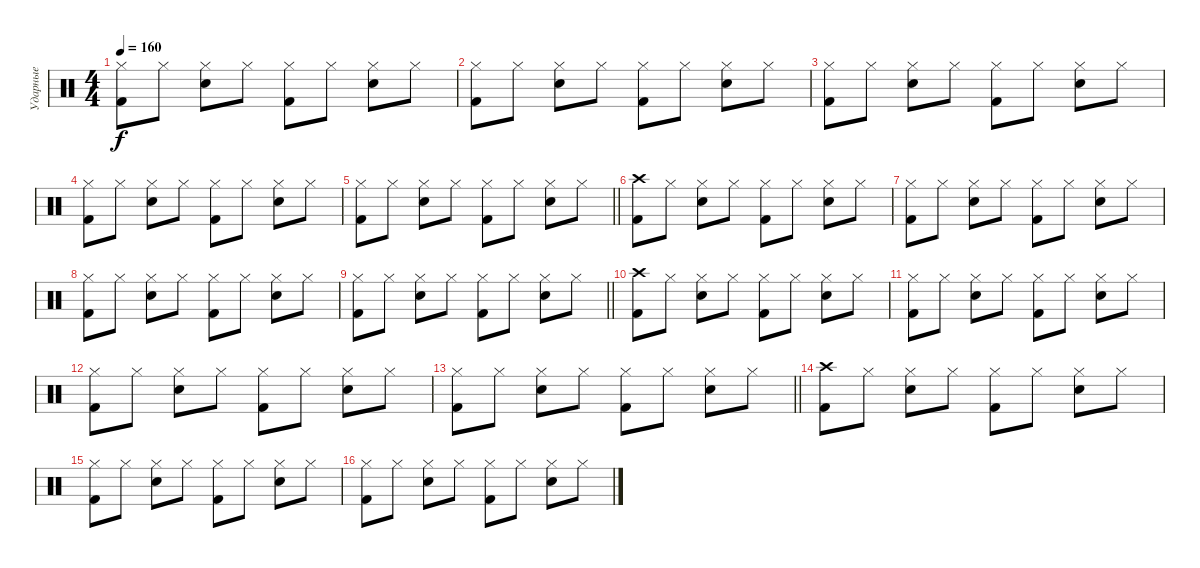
\track ("Ударные" "Ударные") {instrument percussion}
\staff {score}
\articulation defaults
\ts (4 4)
\tempo 160
\clef neutral
\ks c
("Hi-Hat (closed)" "Kick (hit) 2").8{dy f} "Hi-Hat (closed)".8 ("Hi-Hat (closed)" "Snare (hit) 2").8 "Hi-Hat (closed)".8 ("Hi-Hat (closed)" "Kick (hit) 2").8 "Hi-Hat (closed)".8 ("Hi-Hat (closed)" "Snare (hit) 2").8 "Hi-Hat (closed)".8 |
("Hi-Hat (closed)" "Kick (hit) 2").8 "Hi-Hat (closed)".8 ("Hi-Hat (closed)" "Snare (hit) 2").8 "Hi-Hat (closed)".8 ("Hi-Hat (closed)" "Kick (hit) 2").8 "Hi-Hat (closed)".8 ("Hi-Hat (closed)" "Snare (hit) 2").8 "Hi-Hat (closed)".8 |
("Hi-Hat (closed)" "Kick (hit) 2").8 "Hi-Hat (closed)".8 ("Hi-Hat (closed)" "Snare (hit) 2").8 "Hi-Hat (closed)".8 ("Hi-Hat (closed)" "Kick (hit) 2").8 "Hi-Hat (closed)".8 ("Hi-Hat (closed)" "Snare (hit) 2").8 "Hi-Hat (closed)".8 |
("Hi-Hat (closed)" "Kick (hit) 2").8 "Hi-Hat (closed)".8 ("Hi-Hat (closed)" "Snare (hit) 2").8 "Hi-Hat (closed)".8 ("Hi-Hat (closed)" "Kick (hit) 2").8 "Hi-Hat (closed)".8 ("Hi-Hat (closed)" "Snare (hit) 2").8 "Hi-Hat (closed)".8 |
\barLineRight lightlight
("Hi-Hat (closed)" "Kick (hit) 2").8 "Hi-Hat (closed)".8 ("Hi-Hat (closed)" "Snare (hit) 2").8 "Hi-Hat (closed)".8 ("Hi-Hat (closed)" "Kick (hit) 2").8 "Hi-Hat (closed)".8 ("Hi-Hat (closed)" "Snare (hit) 2").8 "Hi-Hat (closed)".8 |
("Crash high (hit)" "Kick (hit) 2").8 "Hi-Hat (closed)".8 ("Hi-Hat (closed)" "Snare (hit) 2").8 "Hi-Hat (closed)".8 ("Hi-Hat (closed)" "Kick (hit) 2").8 "Hi-Hat (closed)".8 ("Hi-Hat (closed)" "Snare (hit) 2").8 "Hi-Hat (closed)".8 |
("Hi-Hat (closed)" "Kick (hit) 2").8 "Hi-Hat (closed)".8 ("Hi-Hat (closed)" "Snare (hit) 2").8 "Hi-Hat (closed)".8 ("Hi-Hat (closed)" "Kick (hit) 2").8 "Hi-Hat (closed)".8 ("Hi-Hat (closed)" "Snare (hit) 2").8 "Hi-Hat (closed)".8 |
("Hi-Hat (closed)" "Kick (hit) 2").8 "Hi-Hat (closed)".8 ("Hi-Hat (closed)" "Snare (hit) 2").8 "Hi-Hat (closed)".8 ("Hi-Hat (closed)" "Kick (hit) 2").8 "Hi-Hat (closed)".8 ("Hi-Hat (closed)" "Snare (hit) 2").8 "Hi-Hat (closed)".8 |
\barLineRight lightlight
("Hi-Hat (closed)" "Kick (hit) 2").8 "Hi-Hat (closed)".8 ("Hi-Hat (closed)" "Snare (hit) 2").8 "Hi-Hat (closed)".8 ("Hi-Hat (closed)" "Kick (hit) 2").8 "Hi-Hat (closed)".8 ("Hi-Hat (closed)" "Snare (hit) 2").8 "Hi-Hat (closed)".8 |
("Crash high (hit)" "Kick (hit) 2").8 "Hi-Hat (closed)".8 ("Hi-Hat (closed)" "Snare (hit) 2").8 "Hi-Hat (closed)".8 ("Hi-Hat (closed)" "Kick (hit) 2").8 "Hi-Hat (closed)".8 ("Hi-Hat (closed)" "Snare (hit) 2").8 "Hi-Hat (closed)".8 |
("Hi-Hat (closed)" "Kick (hit) 2").8 "Hi-Hat (closed)".8 ("Hi-Hat (closed)" "Snare (hit) 2").8 "Hi-Hat (closed)".8 ("Hi-Hat (closed)" "Kick (hit) 2").8 "Hi-Hat (closed)".8 ("Hi-Hat (closed)" "Snare (hit) 2").8 "Hi-Hat (closed)".8 |
("Hi-Hat (closed)" "Kick (hit) 2").8 "Hi-Hat (closed)".8 ("Hi-Hat (closed)" "Snare (hit) 2").8 "Hi-Hat (closed)".8 ("Hi-Hat (closed)" "Kick (hit) 2").8 "Hi-Hat (closed)".8 ("Hi-Hat (closed)" "Snare (hit) 2").8 "Hi-Hat (closed)".8 |
\barLineRight lightlight
("Hi-Hat (closed)" "Kick (hit) 2").8 "Hi-Hat (closed)".8 ("Hi-Hat (closed)" "Snare (hit) 2").8 "Hi-Hat (closed)".8 ("Hi-Hat (closed)" "Kick (hit) 2").8 "Hi-Hat (closed)".8 ("Hi-Hat (closed)" "Snare (hit) 2").8 "Hi-Hat (closed)".8 |
("Crash high (hit)" "Kick (hit) 2").8 "Hi-Hat (closed)".8 ("Hi-Hat (closed)" "Snare (hit) 2").8 "Hi-Hat (closed)".8 ("Hi-Hat (closed)" "Kick (hit) 2").8 "Hi-Hat (closed)".8 ("Hi-Hat (closed)" "Snare (hit) 2").8 "Hi-Hat (closed)".8 |
("Hi-Hat (closed)" "Kick (hit) 2").8 "Hi-Hat (closed)".8 ("Hi-Hat (closed)" "Snare (hit) 2").8 "Hi-Hat (closed)".8 ("Hi-Hat (closed)" "Kick (hit) 2").8 "Hi-Hat (closed)".8 ("Hi-Hat (closed)" "Snare (hit) 2").8 "Hi-Hat (closed)".8 |
("Hi-Hat (closed)" "Kick (hit) 2").8 "Hi-Hat (closed)".8 ("Hi-Hat (closed)" "Snare (hit) 2").8 "Hi-Hat (closed)".8 ("Hi-Hat (closed)" "Kick (hit) 2").8 "Hi-Hat (closed)".8 ("Hi-Hat (closed)" "Snare (hit) 2").8 "Hi-Hat (closed)".8
